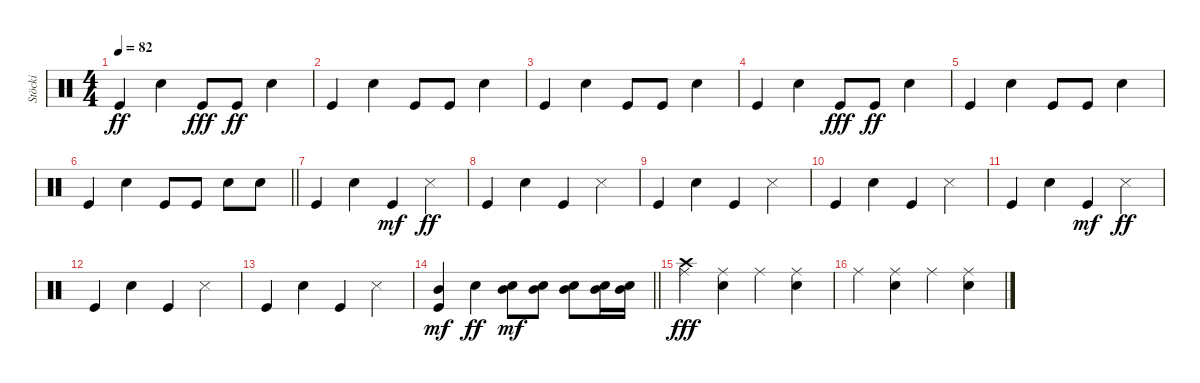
\track ("Stöcki" "Stöcki") {instrument percussion}
\staff {score}
\articulation defaults
\ts (4 4)
\tempo 82
\clef neutral
\ks c "Kick (hit)".4{dy ff} "Snare (hit) 2".4 "Kick (hit)".8{dy fff} "Kick (hit)".8{dy ff} "Snare (hit) 2".4
|
"Kick (hit)".4 "Snare (hit) 2".4 "Kick (hit)".8 "Kick (hit)".8 "Snare (hit) 2".4 |
"Kick (hit)".4 "Snare (hit) 2".4 "Kick (hit)".8 "Kick (hit)".8 "Snare (hit) 2".4 |
"Kick (hit)".4 "Snare (hit) 2".4 "Kick (hit)".8{dy fff} "Kick (hit)".8{dy ff} "Snare (hit) 2".4 |
"Kick (hit)".4 "Snare (hit) 2".4 "Kick (hit)".8 "Kick (hit)".8 "Snare (hit) 2".4 |
\barLineRight lightlight "Kick (hit)".4 "Snare (hit) 2".4 "Kick (hit)".8 "Kick (hit)".8 "Snare (hit) 2".8 "Snare (hit) 2".8
|
"Kick (hit)".4 "Snare (hit) 2".4 "Kick (hit)".4{dy mf} "Snare (side stick) 3".4{dy ff} |
"Kick (hit)".4 "Snare (hit) 2".4 "Kick (hit)".4 "Snare (side stick) 3".4 |
"Kick (hit)".4 "Snare (hit) 2".4 "Kick (hit)".4 "Snare (side stick) 3".4 |
"Kick (hit)".4 "Snare (hit) 2".4 "Kick (hit)".4 "Snare (side stick) 3".4 |
"Kick (hit)".4 "Snare (hit) 2".4 "Kick (hit)".4{dy mf} "Snare (side stick) 3".4{dy ff} |
"Kick (hit)".4 "Snare (hit) 2".4 "Kick (hit)".4 "Snare (side stick) 3".4 |
"Kick (hit)".4 "Snare (hit) 2".4 "Kick (hit)".4 "Snare (side stick) 3".4 |
\barLineRight lightlight
("Kick (hit)" "Mid Tom (hit)").4{dy mf} "Snare (hit) 2".4{dy ff} ("Snare (hit) 2" "Mid Tom (hit)").8{dy mf} ("Snare (hit) 2" "Mid Tom (hit)").8 ("Snare (hit) 2" "Mid Tom (hit)").8 ("Snare (hit) 2" "Mid Tom (hit)").16 ("Snare (hit) 2" "Mid Tom (hit)").16 |
("Ride (middle)" "Crash high (hit)").4{dy fff} ("Ride (middle)" "Snare (hit) 2").4 "Ride (middle)".4 ("Ride (middle)" "Snare (hit) 2").4 |
"Ride (middle)".4 ("Ride (middle)" "Snare (hit) 2").4 "Ride (middle)".4 ("Ride (middle)" "Snare (hit) 2").4
